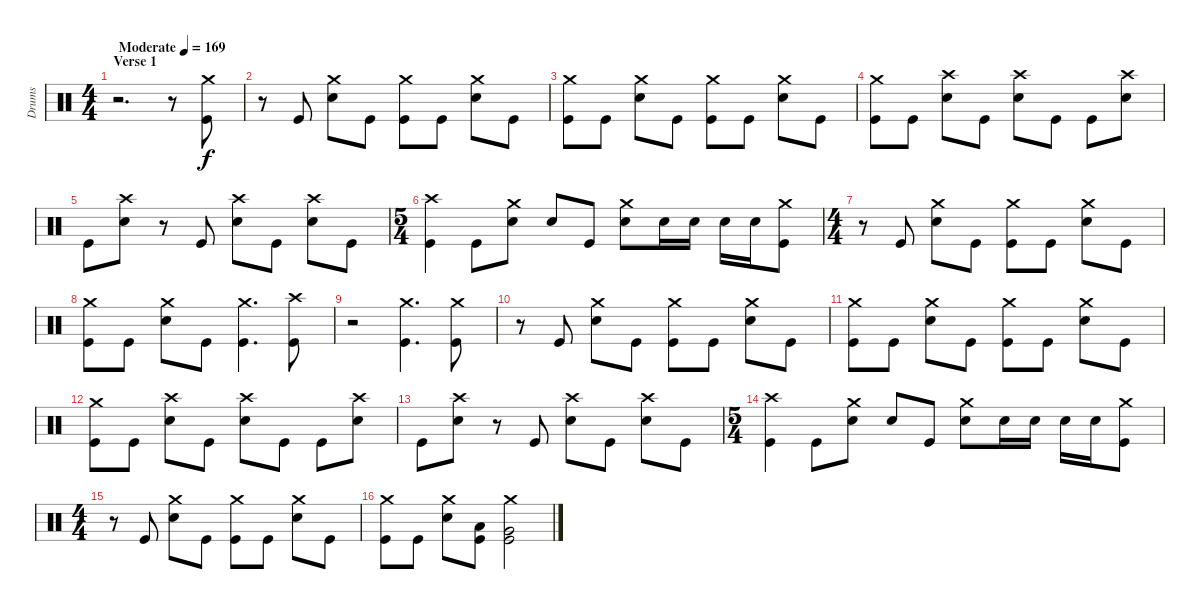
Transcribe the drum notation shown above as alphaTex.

\track ("Drums" "Drums") {instrument percussion}
\staff {score}
\articulation defaults
\ts (4 4)
\section ("" "Verse 1")
\tempo (169 "Moderate")
\clef neutral
\ks c
r.2{d dy f} r.8 ("Crash medium (hit)" "Kick (hit)").8 |
r.8 "Kick (hit)".8 ("Crash medium (hit)" "Snare (hit) 2").8 "Kick (hit)".8 ("Crash medium (hit)" "Kick (hit)").8 "Kick (hit)".8 ("Crash medium (hit)" "Snare (hit) 2").8 "Kick (hit)".8 |
("Crash medium (hit)" "Kick (hit)").8 "Kick (hit)".8 ("Crash medium (hit)" "Snare (hit) 2").8 "Kick (hit)".8 ("Crash medium (hit)" "Kick (hit)").8 "Kick (hit)".8 ("Crash medium (hit)" "Snare (hit) 2").8 "Kick (hit)".8 |
("Crash medium (hit)" "Kick (hit)").8 "Kick (hit)".8 ("Crash high (hit)" "Snare (hit) 2").8 "Kick (hit)".8 ("Crash high (hit)" "Snare (hit) 2").8 "Kick (hit)".8 "Kick (hit)".8 ("Crash high (hit)" "Snare (hit) 2").8 |
"Kick (hit)".8 ("Crash high (hit)" "Snare (hit) 2").8 r.8 "Kick (hit)".8 ("Crash high (hit)" "Snare (hit) 2").8 "Kick (hit)".8 ("Crash high (hit)" "Snare (hit) 2").8 "Kick (hit)".8 |
\ts (5 4)
("Crash high (hit)" "Kick (hit)").4 "Kick (hit)".8 ("Crash medium (hit)" "Snare (hit) 2").8 "Snare (hit) 2".8 "Kick (hit)".8 ("Crash medium (hit)" "Snare (hit) 2").8 "Snare (hit) 2".16 "Snare (hit) 2".16 "Snare (hit) 2".16 "Snare (hit) 2".16 ("Crash medium (hit)" "Kick (hit)").8 |
\ts (4 4)
r.8 "Kick (hit)".8 ("Crash medium (hit)" "Snare (hit) 2").8 "Kick (hit)".8 ("Crash medium (hit)" "Kick (hit)").8 "Kick (hit)".8 ("Crash medium (hit)" "Snare (hit) 2").8 "Kick (hit)".8 |
("Crash medium (hit)" "Kick (hit)").8 "Kick (hit)".8 ("Crash medium (hit)" "Snare (hit) 2").8 "Kick (hit)".8 ("Crash medium (hit)" "Kick (hit)").4{d} ("Crash high (hit)" "Kick (hit)").8 |
r.2 ("Crash medium (hit)" "Kick (hit)").4{d} ("Crash medium (hit)" "Kick (hit)").8 |
r.8 "Kick (hit)".8 ("Crash medium (hit)" "Snare (hit) 2").8 "Kick (hit)".8 ("Crash medium (hit)" "Kick (hit)").8 "Kick (hit)".8 ("Crash medium (hit)" "Snare (hit) 2").8 "Kick (hit)".8 |
("Crash medium (hit)" "Kick (hit)").8 "Kick (hit)".8 ("Crash medium (hit)" "Snare (hit) 2").8 "Kick (hit)".8 ("Crash medium (hit)" "Kick (hit)").8 "Kick (hit)".8 ("Crash medium (hit)" "Snare (hit) 2").8 "Kick (hit)".8 |
("Crash medium (hit)" "Kick (hit)").8 "Kick (hit)".8 ("Crash high (hit)" "Snare (hit) 2").8 "Kick (hit)".8 ("Crash high (hit)" "Snare (hit) 2").8 "Kick (hit)".8 "Kick (hit)".8 ("Crash high (hit)" "Snare (hit) 2").8 |
"Kick (hit)".8 ("Crash high (hit)" "Snare (hit) 2").8 r.8 "Kick (hit)".8 ("Crash high (hit)" "Snare (hit) 2").8 "Kick (hit)".8 ("Crash high (hit)" "Snare (hit) 2").8 "Kick (hit)".8 |
\ts (5 4)
("Crash high (hit)" "Kick (hit)").4 "Kick (hit)".8 ("Crash medium (hit)" "Snare (hit) 2").8 "Snare (hit) 2".8 "Kick (hit)".8 ("Crash medium (hit)" "Snare (hit) 2").8 "Snare (hit) 2".16 "Snare (hit) 2".16 "Snare (hit) 2".16 "Snare (hit) 2".16 ("Crash medium (hit)" "Kick (hit)").8 |
\ts (4 4)
r.8 "Kick (hit)".8 ("Crash medium (hit)" "Snare (hit) 2").8 "Kick (hit)".8 ("Crash medium (hit)" "Kick (hit)").8 "Kick (hit)".8 ("Crash medium (hit)" "Snare (hit) 2").8 "Kick (hit)".8 |
("Crash medium (hit)" "Kick (hit)").8 "Kick (hit)".8 ("Crash medium (hit)" "Snare (hit) 2").8 ("Low Tom (hit)" "Kick (hit)").8 ("Crash medium (hit)" "Very Low Tom (hit)" "Kick (hit)").2
